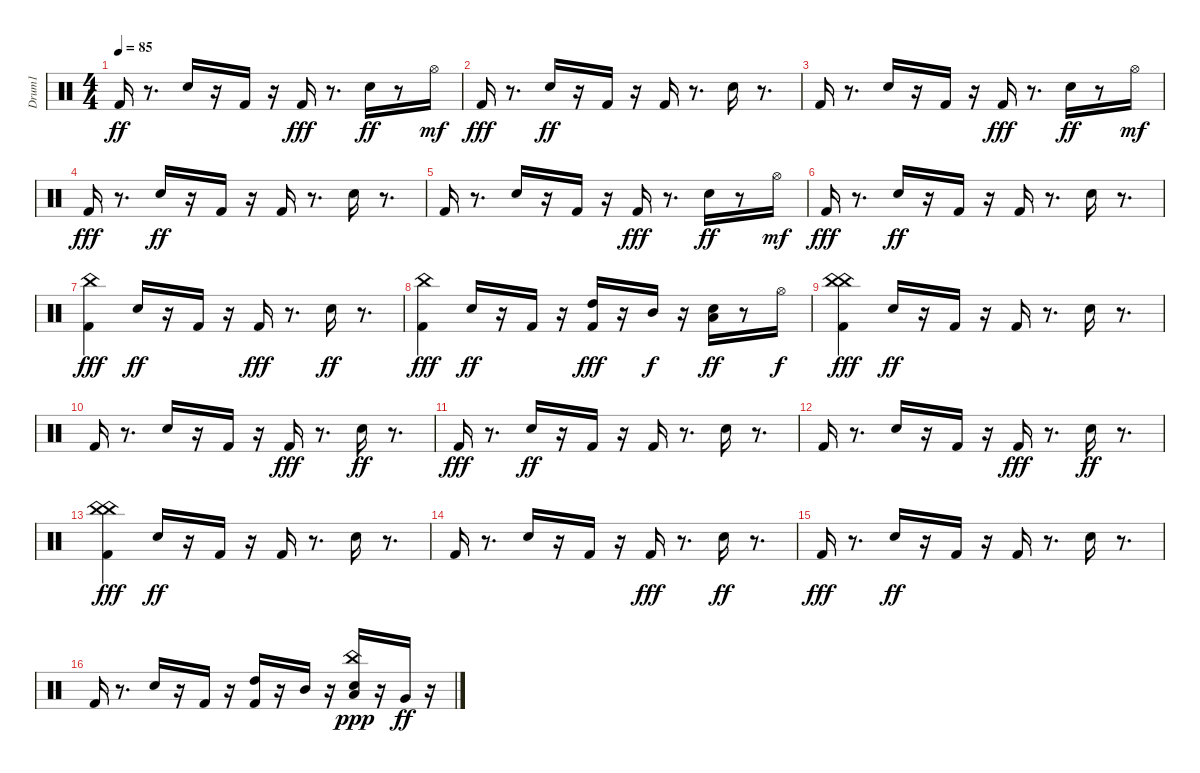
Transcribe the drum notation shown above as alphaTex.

\track ("Drum1" "Drum1") {instrument percussion}
\staff {score}
\articulation defaults
\ts (4 4)
\tempo 85
\clef neutral
\ks c "Kick (hit) 2".16{dy ff}
r.8{d} "Hand Clap (hit)".16 r.16 "Kick (hit) 2".16 r.16 "Kick (hit) 2".16{dy fff} r.8{d} "Hand Clap (hit)".16{dy ff} r.8 "Hi-Hat (open)".16{dy mf} |
"Kick (hit) 2".16{dy fff} r.8{d} "Hand Clap (hit)".16{dy ff} r.16 "Kick (hit) 2".16 r.16 "Kick (hit) 2".16 r.8{d} "Hand Clap (hit)".16 r.8{d} |
"Kick (hit) 2".16 r.8{d} "Hand Clap (hit)".16 r.16 "Kick (hit) 2".16 r.16 "Kick (hit) 2".16{dy fff} r.8{d} "Hand Clap (hit)".16{dy ff} r.8 "Hi-Hat (open)".16{dy mf} |
"Kick (hit) 2".16{dy fff} r.8{d} "Hand Clap (hit)".16{dy ff} r.16 "Kick (hit) 2".16 r.16 "Kick (hit) 2".16 r.8{d} "Hand Clap (hit)".16 r.8{d} |
"Kick (hit) 2".16 r.8{d} "Hand Clap (hit)".16 r.16 "Kick (hit) 2".16 r.16 "Kick (hit) 2".16{dy fff} r.8{d} "Hand Clap (hit)".16{dy ff} r.8 "Hi-Hat (open)".16{dy mf} |
"Kick (hit) 2".16{dy fff} r.8{d} "Hand Clap (hit)".16{dy ff} r.16 "Kick (hit) 2".16 r.16 "Kick (hit) 2".16 r.8{d} "Hand Clap (hit)".16 r.8{d} |
("Kick (hit) 2" "China (hit)").4{dy fff} "Hand Clap (hit)".16{dy ff} r.16 "Kick (hit) 2".16 r.16 "Kick (hit) 2".16{dy fff} r.8{d} "Hand Clap (hit)".16{dy ff} r.8{d} |
("Kick (hit) 2" "China (hit)").4{dy fff} "Hand Clap (hit)".16{dy ff} r.16 "Kick (hit) 2".16 r.16 ("Kick (hit) 2" "High Tom (hit)").16{dy fff} r.16 "Mid Tom (hit)".16{dy f} r.16 ("Hand Clap (hit)" "Low Tom (hit)").16{dy ff} r.8 "Hi-Hat (open)".16{dy f} |
("China (hit)" "Kick (hit) 2" "China (hit)").4{dy fff} "Hand Clap (hit)".16{dy ff} r.16 "Kick (hit) 2".16 r.16 "Kick (hit) 2".16 r.8{d} "Hand Clap (hit)".16 r.8{d} |
"Kick (hit) 2".16 r.8{d} "Hand Clap (hit)".16 r.16 "Kick (hit) 2".16 r.16 "Kick (hit) 2".16{dy fff} r.8{d} "Hand Clap (hit)".16{dy ff} r.8{d} |
"Kick (hit) 2".16{dy fff} r.8{d} "Hand Clap (hit)".16{dy ff} r.16 "Kick (hit) 2".16 r.16 "Kick (hit) 2".16 r.8{d} "Hand Clap (hit)".16 r.8{d} |
"Kick (hit) 2".16 r.8{d} "Hand Clap (hit)".16 r.16 "Kick (hit) 2".16 r.16 "Kick (hit) 2".16{dy fff} r.8{d} "Hand Clap (hit)".16{dy ff} r.8{d} |
("Kick (hit) 2" "China (hit)" "China (hit)").4{dy fff} "Hand Clap (hit)".16{dy ff} r.16 "Kick (hit) 2".16 r.16 "Kick (hit) 2".16 r.8{d} "Hand Clap (hit)".16 r.8{d} |
"Kick (hit) 2".16 r.8{d} "Hand Clap (hit)".16 r.16 "Kick (hit) 2".16 r.16 "Kick (hit) 2".16{dy fff} r.8{d} "Hand Clap (hit)".16{dy ff} r.8{d} |
"Kick (hit) 2".16{dy fff} r.8{d} "Hand Clap (hit)".16{dy ff} r.16 "Kick (hit) 2".16 r.16 "Kick (hit) 2".16 r.8{d} "Hand Clap (hit)".16 r.8{d} |
"Kick (hit) 2".16 r.8{d} "Hand Clap (hit)".16 r.16 "Kick (hit) 2".16 r.16 ("Kick (hit) 2" "High Tom (hit)").16 r.16 "Mid Tom (hit)".16 r.16 ("Hand Clap (hit)" "Low Tom (hit)" "China (hit)").16{dy ppp} r.16 "Very Low Tom (hit)".16{dy ff} r.16
